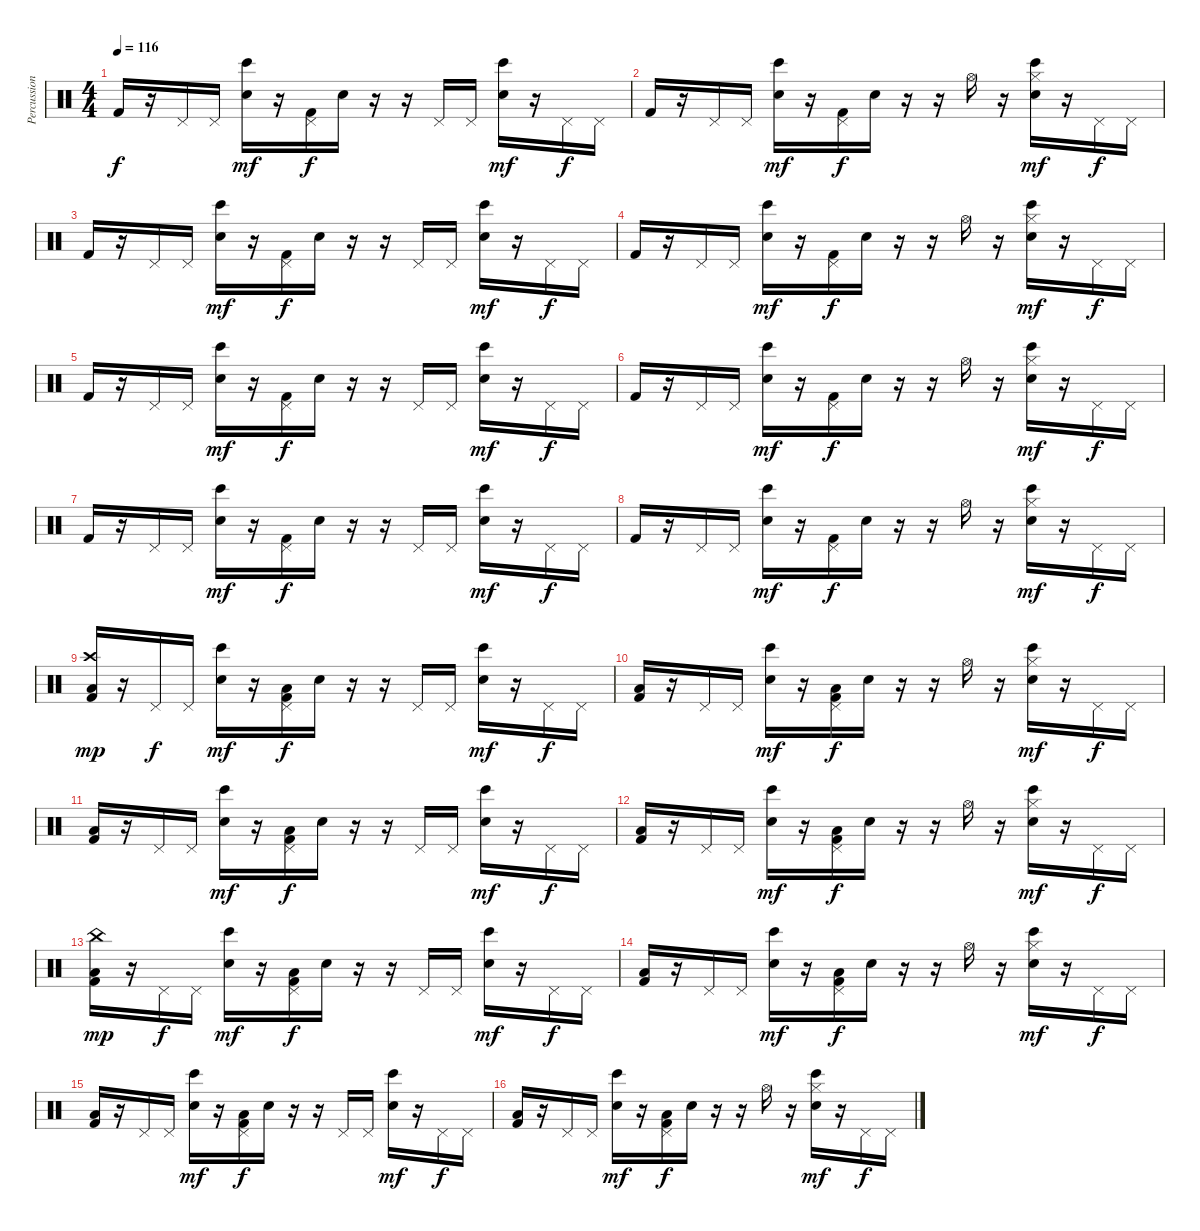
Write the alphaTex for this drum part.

\track ("Percussion" "Percussion") {instrument percussion}
\staff {score}
\articulation defaults
\ts (4 4)
\tempo 116
\clef neutral
\ks c "Kick (hit) 2".16{dy f}
r.16 "Pedal Hi-Hat (hit)".16 "Pedal Hi-Hat (hit)".16 ("Bongo High (hit)" "Hand Clap (hit)").16{dy mf} r.16 ("Pedal Hi-Hat (hit)" "Kick (hit) 2").16{dy f} "Snare (hit)".16 r.16 r.16 "Pedal Hi-Hat (hit)".16 "Pedal Hi-Hat (hit)".16 ("Bongo High (hit)" "Hand Clap (hit)").16{dy mf} r.16 "Pedal Hi-Hat (hit)".16{dy f} "Pedal Hi-Hat (hit)".16 |
"Kick (hit) 2".16 r.16 "Pedal Hi-Hat (hit)".16 "Pedal Hi-Hat (hit)".16 ("Bongo High (hit)" "Hand Clap (hit)").16{dy mf} r.16 ("Pedal Hi-Hat (hit)" "Kick (hit) 2").16{dy f} "Snare (hit)".16 r.16 r.16 "Hi-Hat (open)".16 r.16 ("Hi-Hat (closed)" "Bongo High (hit)" "Hand Clap (hit)").16{dy mf} r.16 "Pedal Hi-Hat (hit)".16{dy f} "Pedal Hi-Hat (hit)".16 |
"Kick (hit) 2".16 r.16 "Pedal Hi-Hat (hit)".16 "Pedal Hi-Hat (hit)".16 ("Bongo High (hit)" "Hand Clap (hit)").16{dy mf} r.16 ("Pedal Hi-Hat (hit)" "Kick (hit) 2").16{dy f} "Snare (hit)".16 r.16 r.16 "Pedal Hi-Hat (hit)".16 "Pedal Hi-Hat (hit)".16 ("Bongo High (hit)" "Hand Clap (hit)").16{dy mf} r.16 "Pedal Hi-Hat (hit)".16{dy f} "Pedal Hi-Hat (hit)".16 |
"Kick (hit) 2".16 r.16 "Pedal Hi-Hat (hit)".16 "Pedal Hi-Hat (hit)".16 ("Bongo High (hit)" "Hand Clap (hit)").16{dy mf} r.16 ("Pedal Hi-Hat (hit)" "Kick (hit) 2").16{dy f} "Snare (hit)".16 r.16 r.16 "Hi-Hat (open)".16 r.16 ("Hi-Hat (closed)" "Bongo High (hit)" "Hand Clap (hit)").16{dy mf} r.16 "Pedal Hi-Hat (hit)".16{dy f} "Pedal Hi-Hat (hit)".16 |
"Kick (hit) 2".16 r.16 "Pedal Hi-Hat (hit)".16 "Pedal Hi-Hat (hit)".16 ("Bongo High (hit)" "Hand Clap (hit)").16{dy mf} r.16 ("Pedal Hi-Hat (hit)" "Kick (hit) 2").16{dy f} "Snare (hit)".16 r.16 r.16 "Pedal Hi-Hat (hit)".16 "Pedal Hi-Hat (hit)".16 ("Bongo High (hit)" "Hand Clap (hit)").16{dy mf} r.16 "Pedal Hi-Hat (hit)".16{dy f} "Pedal Hi-Hat (hit)".16 |
"Kick (hit) 2".16 r.16 "Pedal Hi-Hat (hit)".16 "Pedal Hi-Hat (hit)".16 ("Bongo High (hit)" "Hand Clap (hit)").16{dy mf} r.16 ("Pedal Hi-Hat (hit)" "Kick (hit) 2").16{dy f} "Snare (hit)".16 r.16 r.16 "Hi-Hat (open)".16 r.16 ("Hi-Hat (closed)" "Bongo High (hit)" "Hand Clap (hit)").16{dy mf} r.16 "Pedal Hi-Hat (hit)".16{dy f} "Pedal Hi-Hat (hit)".16 |
"Kick (hit) 2".16 r.16 "Pedal Hi-Hat (hit)".16 "Pedal Hi-Hat (hit)".16 ("Bongo High (hit)" "Hand Clap (hit)").16{dy mf} r.16 ("Pedal Hi-Hat (hit)" "Kick (hit) 2").16{dy f} "Snare (hit)".16 r.16 r.16 "Pedal Hi-Hat (hit)".16 "Pedal Hi-Hat (hit)".16 ("Bongo High (hit)" "Hand Clap (hit)").16{dy mf} r.16 "Pedal Hi-Hat (hit)".16{dy f} "Pedal Hi-Hat (hit)".16 |
"Kick (hit) 2".16 r.16 "Pedal Hi-Hat (hit)".16 "Pedal Hi-Hat (hit)".16 ("Bongo High (hit)" "Hand Clap (hit)").16{dy mf} r.16 ("Pedal Hi-Hat (hit)" "Kick (hit) 2").16{dy f} "Snare (hit)".16 r.16 r.16 "Hi-Hat (open)".16 r.16 ("Hi-Hat (closed)" "Bongo High (hit)" "Hand Clap (hit)").16{dy mf} r.16 "Pedal Hi-Hat (hit)".16{dy f} "Pedal Hi-Hat (hit)".16 |
("Crash high (hit)" "Low Floor Tom (hit)" "Kick (hit) 2").16{dy mp} r.16 "Pedal Hi-Hat (hit)".16{dy f} "Pedal Hi-Hat (hit)".16 ("Bongo High (hit)" "Hand Clap (hit)").16{dy mf} r.16 ("Pedal Hi-Hat (hit)" "Low Floor Tom (hit)" "Kick (hit) 2").16{dy f} "Snare (hit)".16 r.16 r.16 "Pedal Hi-Hat (hit)".16 "Pedal Hi-Hat (hit)".16 ("Bongo High (hit)" "Hand Clap (hit)").16{dy mf} r.16 "Pedal Hi-Hat (hit)".16{dy f} "Pedal Hi-Hat (hit)".16 |
("Low Floor Tom (hit)" "Kick (hit) 2").16 r.16 "Pedal Hi-Hat (hit)".16 "Pedal Hi-Hat (hit)".16 ("Bongo High (hit)" "Hand Clap (hit)").16{dy mf} r.16 ("Pedal Hi-Hat (hit)" "Low Floor Tom (hit)" "Kick (hit) 2").16{dy f} "Snare (hit)".16 r.16 r.16 "Hi-Hat (open)".16 r.16 ("Hi-Hat (closed)" "Bongo High (hit)" "Hand Clap (hit)").16{dy mf} r.16 "Pedal Hi-Hat (hit)".16{dy f} "Pedal Hi-Hat (hit)".16 |
("Low Floor Tom (hit)" "Kick (hit) 2").16 r.16 "Pedal Hi-Hat (hit)".16 "Pedal Hi-Hat (hit)".16 ("Bongo High (hit)" "Hand Clap (hit)").16{dy mf} r.16 ("Pedal Hi-Hat (hit)" "Low Floor Tom (hit)" "Kick (hit) 2").16{dy f} "Snare (hit)".16 r.16 r.16 "Pedal Hi-Hat (hit)".16 "Pedal Hi-Hat (hit)".16 ("Bongo High (hit)" "Hand Clap (hit)").16{dy mf} r.16 "Pedal Hi-Hat (hit)".16{dy f} "Pedal Hi-Hat (hit)".16 |
("Low Floor Tom (hit)" "Kick (hit) 2").16 r.16 "Pedal Hi-Hat (hit)".16 "Pedal Hi-Hat (hit)".16 ("Bongo High (hit)" "Hand Clap (hit)").16{dy mf} r.16 ("Pedal Hi-Hat (hit)" "Low Floor Tom (hit)" "Kick (hit) 2").16{dy f} "Snare (hit)".16 r.16 r.16 "Hi-Hat (open)".16 r.16 ("Hi-Hat (closed)" "Bongo High (hit)" "Hand Clap (hit)").16{dy mf} r.16 "Pedal Hi-Hat (hit)".16{dy f} "Pedal Hi-Hat (hit)".16 |
("China (hit)" "Low Floor Tom (hit)" "Kick (hit) 2").16{dy mp} r.16 "Pedal Hi-Hat (hit)".16{dy f} "Pedal Hi-Hat (hit)".16 ("Bongo High (hit)" "Hand Clap (hit)").16{dy mf} r.16 ("Pedal Hi-Hat (hit)" "Low Floor Tom (hit)" "Kick (hit) 2").16{dy f} "Snare (hit)".16 r.16 r.16 "Pedal Hi-Hat (hit)".16 "Pedal Hi-Hat (hit)".16 ("Bongo High (hit)" "Hand Clap (hit)").16{dy mf} r.16 "Pedal Hi-Hat (hit)".16{dy f} "Pedal Hi-Hat (hit)".16 |
("Low Floor Tom (hit)" "Kick (hit) 2").16 r.16 "Pedal Hi-Hat (hit)".16 "Pedal Hi-Hat (hit)".16 ("Bongo High (hit)" "Hand Clap (hit)").16{dy mf} r.16 ("Pedal Hi-Hat (hit)" "Low Floor Tom (hit)" "Kick (hit) 2").16{dy f} "Snare (hit)".16 r.16 r.16 "Hi-Hat (open)".16 r.16 ("Hi-Hat (closed)" "Bongo High (hit)" "Hand Clap (hit)").16{dy mf} r.16 "Pedal Hi-Hat (hit)".16{dy f} "Pedal Hi-Hat (hit)".16 |
("Low Floor Tom (hit)" "Kick (hit) 2").16 r.16 "Pedal Hi-Hat (hit)".16 "Pedal Hi-Hat (hit)".16 ("Bongo High (hit)" "Hand Clap (hit)").16{dy mf} r.16 ("Pedal Hi-Hat (hit)" "Low Floor Tom (hit)" "Kick (hit) 2").16{dy f} "Snare (hit)".16 r.16 r.16 "Pedal Hi-Hat (hit)".16 "Pedal Hi-Hat (hit)".16 ("Bongo High (hit)" "Hand Clap (hit)").16{dy mf} r.16 "Pedal Hi-Hat (hit)".16{dy f} "Pedal Hi-Hat (hit)".16 |
("Low Floor Tom (hit)" "Kick (hit) 2").16 r.16 "Pedal Hi-Hat (hit)".16 "Pedal Hi-Hat (hit)".16 ("Bongo High (hit)" "Hand Clap (hit)").16{dy mf} r.16 ("Pedal Hi-Hat (hit)" "Low Floor Tom (hit)" "Kick (hit) 2").16{dy f} "Snare (hit)".16 r.16 r.16 "Hi-Hat (open)".16 r.16 ("Hi-Hat (closed)" "Bongo High (hit)" "Hand Clap (hit)").16{dy mf} r.16 "Pedal Hi-Hat (hit)".16{dy f} "Pedal Hi-Hat (hit)".16
